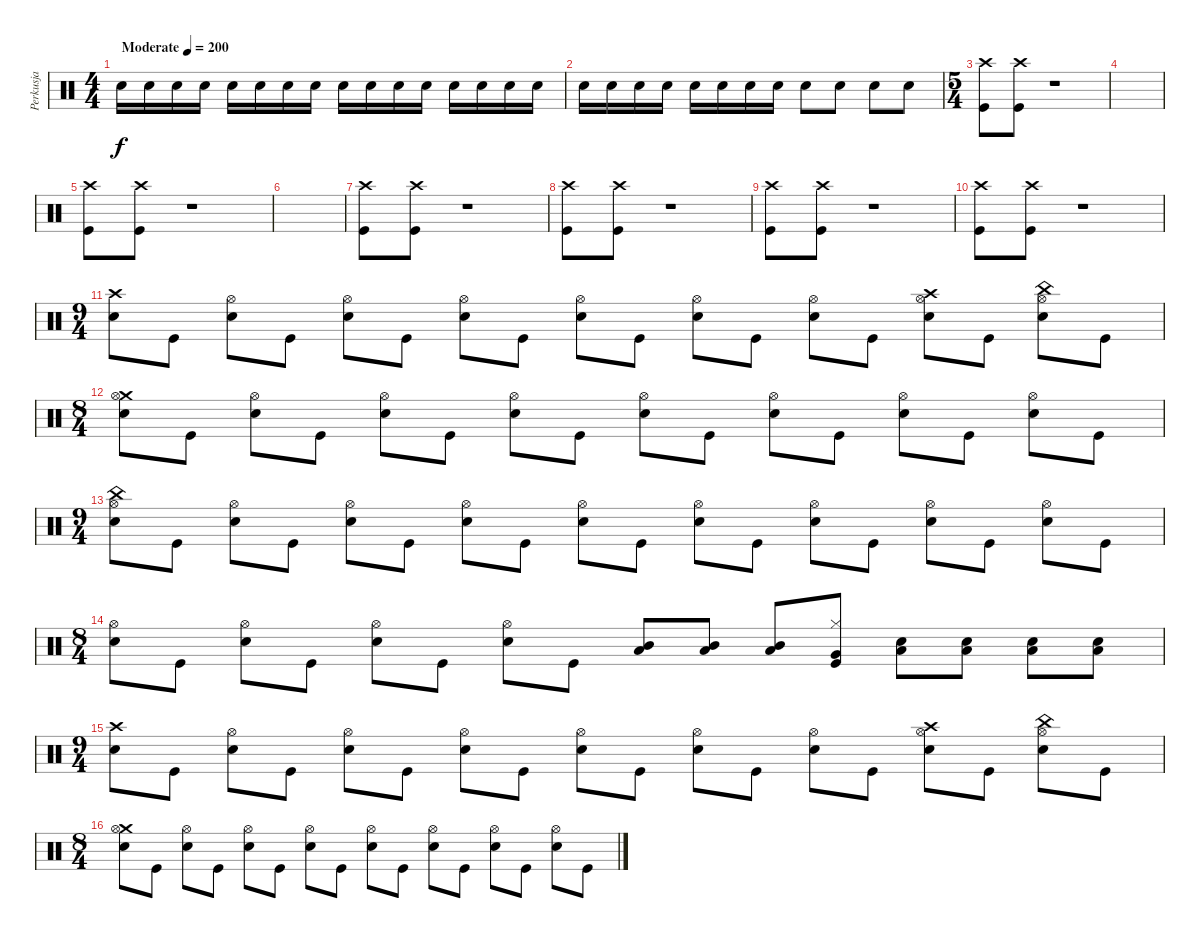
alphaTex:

\track ("Perkusja" "Perkusja") {instrument percussion}
\staff {score}
\articulation defaults
\ts (4 4)
\tempo (200 "Moderate")
\clef neutral
\ks c "Electric Snare (hit)".16{dy f} "Electric Snare (hit)".16 "Electric Snare (hit)".16 "Electric Snare (hit)".16 "Electric Snare (hit)".16 "Electric Snare (hit)".16 "Electric Snare (hit)".16 "Electric Snare (hit)".16 "Electric Snare (hit)".16 "Electric Snare (hit)".16 "Electric Snare (hit)".16 "Electric Snare (hit)".16 "Electric Snare (hit)".16 "Electric Snare (hit)".16 "Electric Snare (hit)".16 "Electric Snare (hit)".16
|
"Electric Snare (hit)".16 "Electric Snare (hit)".16 "Electric Snare (hit)".16 "Electric Snare (hit)".16 "Electric Snare (hit)".16 "Electric Snare (hit)".16 "Electric Snare (hit)".16 "Electric Snare (hit)".16 "Electric Snare (hit)".8 "Electric Snare (hit)".8 "Electric Snare (hit)".8 "Electric Snare (hit)".8 |
\ts (5 4)
("Crash high (hit)" "Kick (hit)").8 ("Crash high (hit)" "Kick (hit)").8 r.1 |
|
("Crash high (hit)" "Kick (hit)").8 ("Crash high (hit)" "Kick (hit)").8 r.1 |
|
("Crash high (hit)" "Kick (hit)").8 ("Crash high (hit)" "Kick (hit)").8 r.1 |
("Crash high (hit)" "Kick (hit)").8 ("Crash high (hit)" "Kick (hit)").8 r.1 |
("Crash high (hit)" "Kick (hit)").8 ("Crash high (hit)" "Kick (hit)").8 r.1 |
("Crash high (hit)" "Kick (hit)").8 ("Crash high (hit)" "Kick (hit)").8 r.1 |
\ts (9 4)
("Crash high (hit)" "Electric Snare (hit)").8 "Kick (hit)".8 ("Hi-Hat (open)" "Electric Snare (hit)").8 "Kick (hit)".8 ("Hi-Hat (open)" "Electric Snare (hit)").8 "Kick (hit)".8 ("Hi-Hat (open)" "Electric Snare (hit)").8 "Kick (hit)".8 ("Hi-Hat (open)" "Electric Snare (hit)").8 "Kick (hit)".8 ("Hi-Hat (open)" "Electric Snare (hit)").8 "Kick (hit)".8 ("Hi-Hat (open)" "Electric Snare (hit)").8 "Kick (hit)".8 ("Crash high (hit)" "Hi-Hat (open)" "Electric Snare (hit)").8 "Kick (hit)".8 ("China (hit)" "Hi-Hat (open)" "Electric Snare (hit)").8 "Kick (hit)".8 |
\ts (8 4)
("Crash medium (hit)" "Hi-Hat (open)" "Electric Snare (hit)").8 "Kick (hit)".8 ("Hi-Hat (open)" "Electric Snare (hit)").8 "Kick (hit)".8 ("Hi-Hat (open)" "Electric Snare (hit)").8 "Kick (hit)".8 ("Hi-Hat (open)" "Electric Snare (hit)").8 "Kick (hit)".8 ("Hi-Hat (open)" "Electric Snare (hit)").8 "Kick (hit)".8 ("Hi-Hat (open)" "Electric Snare (hit)").8 "Kick (hit)".8 ("Hi-Hat (open)" "Electric Snare (hit)").8 "Kick (hit)".8 ("Hi-Hat (open)" "Electric Snare (hit)").8 "Kick (hit)".8 |
\ts (9 4)
("China (hit)" "Hi-Hat (open)" "Electric Snare (hit)").8 "Kick (hit)".8 ("Hi-Hat (open)" "Electric Snare (hit)").8 "Kick (hit)".8 ("Hi-Hat (open)" "Electric Snare (hit)").8 "Kick (hit)".8 ("Hi-Hat (open)" "Electric Snare (hit)").8 "Kick (hit)".8 ("Hi-Hat (open)" "Electric Snare (hit)").8 "Kick (hit)".8 ("Hi-Hat (open)" "Electric Snare (hit)").8 "Kick (hit)".8 ("Hi-Hat (open)" "Electric Snare (hit)").8 "Kick (hit)".8 ("Hi-Hat (open)" "Electric Snare (hit)").8 "Kick (hit)".8 ("Hi-Hat (open)" "Electric Snare (hit)").8 "Kick (hit)".8 |
\ts (8 4)
("Hi-Hat (open)" "Electric Snare (hit)").8 "Kick (hit)".8 ("Hi-Hat (open)" "Electric Snare (hit)").8 "Kick (hit)".8 ("Hi-Hat (open)" "Electric Snare (hit)").8 "Kick (hit)".8 ("Hi-Hat (open)" "Electric Snare (hit)").8 "Kick (hit)".8 ("Mid Tom (hit)" "Low Tom (hit)").8 ("Mid Tom (hit)" "Low Tom (hit)").8 ("Mid Tom (hit)" "Low Tom (hit)").8 ("Hi-Hat (closed)" "Very Low Tom (hit)" "Kick (hit)").8 ("Low Tom (hit)" "Electric Snare (hit)").8 ("Low Tom (hit)" "Electric Snare (hit)").8 ("Low Tom (hit)" "Electric Snare (hit)").8 ("Low Tom (hit)" "Electric Snare (hit)").8 |
\ts (9 4)
("Crash high (hit)" "Electric Snare (hit)").8 "Kick (hit)".8 ("Hi-Hat (open)" "Electric Snare (hit)").8 "Kick (hit)".8 ("Hi-Hat (open)" "Electric Snare (hit)").8 "Kick (hit)".8 ("Hi-Hat (open)" "Electric Snare (hit)").8 "Kick (hit)".8 ("Hi-Hat (open)" "Electric Snare (hit)").8 "Kick (hit)".8 ("Hi-Hat (open)" "Electric Snare (hit)").8 "Kick (hit)".8 ("Hi-Hat (open)" "Electric Snare (hit)").8 "Kick (hit)".8 ("Crash high (hit)" "Hi-Hat (open)" "Electric Snare (hit)").8 "Kick (hit)".8 ("China (hit)" "Hi-Hat (open)" "Electric Snare (hit)").8 "Kick (hit)".8 |
\ts (8 4)
("Crash medium (hit)" "Hi-Hat (open)" "Electric Snare (hit)").8 "Kick (hit)".8 ("Hi-Hat (open)" "Electric Snare (hit)").8 "Kick (hit)".8 ("Hi-Hat (open)" "Electric Snare (hit)").8 "Kick (hit)".8 ("Hi-Hat (open)" "Electric Snare (hit)").8 "Kick (hit)".8 ("Hi-Hat (open)" "Electric Snare (hit)").8 "Kick (hit)".8 ("Hi-Hat (open)" "Electric Snare (hit)").8 "Kick (hit)".8 ("Hi-Hat (open)" "Electric Snare (hit)").8 "Kick (hit)".8 ("Hi-Hat (open)" "Electric Snare (hit)").8 "Kick (hit)".8
